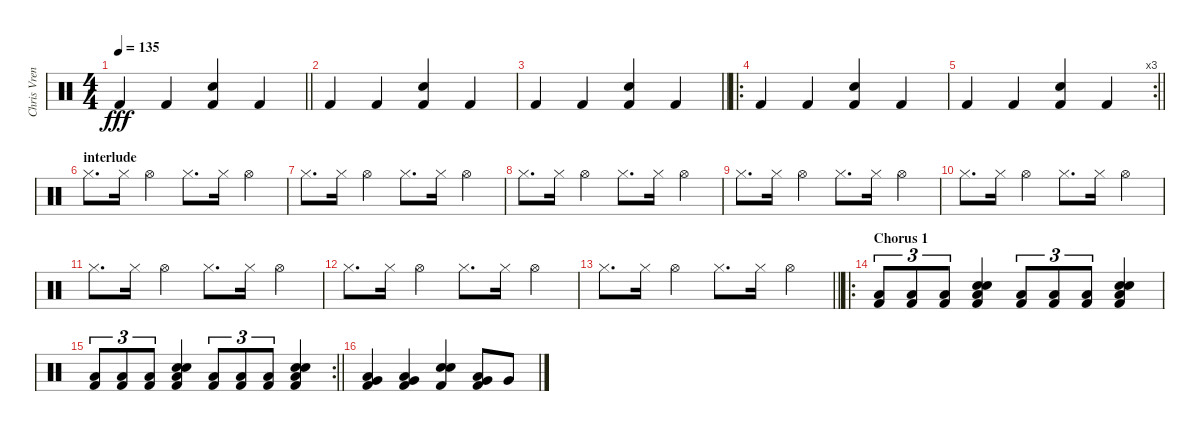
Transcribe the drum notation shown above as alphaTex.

\track ("Chris Vrenna (percussions)" "Chris Vren") {instrument percussion}
\staff {score}
\articulation defaults
\ts (4 4)
\tempo 135
\clef neutral
\barLineRight lightlight
\ks c "Kick (hit) 2".4{dy fff} "Kick (hit) 2".4
("Snare (hit) 2" "Kick (hit) 2").4 "Kick (hit) 2".4 |
"Kick (hit) 2".4 "Kick (hit) 2".4 ("Snare (hit) 2" "Kick (hit) 2").4 "Kick (hit) 2".4 |
\barLineRight lightlight "Kick (hit) 2".4 "Kick (hit) 2".4
("Snare (hit) 2" "Kick (hit) 2").4 "Kick (hit) 2".4 |
\ro "Kick (hit) 2".4 "Kick (hit) 2".4
("Snare (hit) 2" "Kick (hit) 2").4 "Kick (hit) 2".4 |
\rc 3
\barLineRight lightlight "Kick (hit) 2".4 "Kick (hit) 2".4
("Snare (hit) 2" "Kick (hit) 2").4 "Kick (hit) 2".4 |
\section ("" "interlude")
"Hi-Hat (closed)".8{d} "Hi-Hat (closed)".16 "Hi-Hat (open)".4 "Hi-Hat (closed)".8{d} "Hi-Hat (closed)".16 "Hi-Hat (open)".4 |
"Hi-Hat (closed)".8{d} "Hi-Hat (closed)".16 "Hi-Hat (open)".4 "Hi-Hat (closed)".8{d} "Hi-Hat (closed)".16 "Hi-Hat (open)".4 |
"Hi-Hat (closed)".8{d} "Hi-Hat (closed)".16 "Hi-Hat (open)".4 "Hi-Hat (closed)".8{d} "Hi-Hat (closed)".16 "Hi-Hat (open)".4 |
"Hi-Hat (closed)".8{d} "Hi-Hat (closed)".16 "Hi-Hat (open)".4 "Hi-Hat (closed)".8{d} "Hi-Hat (closed)".16 "Hi-Hat (open)".4 |
"Hi-Hat (closed)".8{d} "Hi-Hat (closed)".16 "Hi-Hat (open)".4 "Hi-Hat (closed)".8{d} "Hi-Hat (closed)".16 "Hi-Hat (open)".4 |
"Hi-Hat (closed)".8{d} "Hi-Hat (closed)".16 "Hi-Hat (open)".4 "Hi-Hat (closed)".8{d} "Hi-Hat (closed)".16 "Hi-Hat (open)".4 |
"Hi-Hat (closed)".8{d} "Hi-Hat (closed)".16 "Hi-Hat (open)".4 "Hi-Hat (closed)".8{d} "Hi-Hat (closed)".16 "Hi-Hat (open)".4 |
\barLineRight lightlight "Hi-Hat (closed)".8{d} "Hi-Hat (closed)".16 "Hi-Hat (open)".4 "Hi-Hat (closed)".8{d} "Hi-Hat (closed)".16 "Hi-Hat (open)".4
|
\ro
\section ("" "Chorus 1")
("Low Tom (hit)" "Kick (hit) 2").8{tu (3 2)} ("Low Tom (hit)" "Kick (hit) 2").8{tu (3 2)} ("Low Tom (hit)" "Kick (hit) 2").8{tu (3 2)} ("Electric Snare (hit)" "Snare (hit) 2" "Low Tom (hit)" "Kick (hit) 2").4 ("Low Tom (hit)" "Kick (hit) 2").8{tu (3 2)} ("Low Tom (hit)" "Kick (hit) 2").8{tu (3 2)} ("Low Tom (hit)" "Kick (hit) 2").8{tu (3 2)} ("Electric Snare (hit)" "Snare (hit) 2" "Low Tom (hit)" "Kick (hit) 2").4 |
\rc 2
\barLineRight lightlight
("Low Tom (hit)" "Kick (hit) 2").8{tu (3 2)} ("Low Tom (hit)" "Kick (hit) 2").8{tu (3 2)} ("Low Tom (hit)" "Kick (hit) 2").8{tu (3 2)} ("Electric Snare (hit)" "Snare (hit) 2" "Low Tom (hit)" "Kick (hit) 2").4 ("Low Tom (hit)" "Kick (hit) 2").8{tu (3 2)} ("Low Tom (hit)" "Kick (hit) 2").8{tu (3 2)} ("Low Tom (hit)" "Kick (hit) 2").8{tu (3 2)} ("Electric Snare (hit)" "Snare (hit) 2" "Low Tom (hit)" "Kick (hit) 2").4 |
("Very Low Tom (hit)" "Low Tom (hit)" "Kick (hit) 2").4 ("Very Low Tom (hit)" "Low Tom (hit)" "Kick (hit) 2").4 ("Snare (hit) 2" "Electric Snare (hit)" "Kick (hit) 2").4 ("Very Low Tom (hit)" "Low Tom (hit)" "Kick (hit) 2").8 "Very Low Tom (hit)".8
